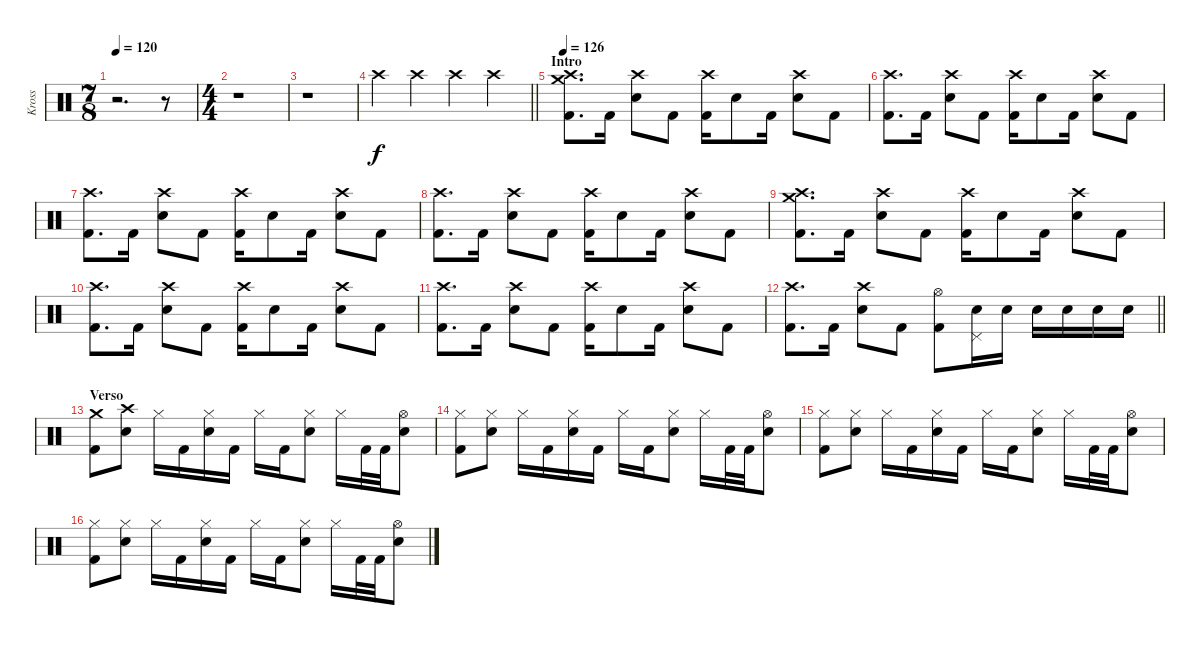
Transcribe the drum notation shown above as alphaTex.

\track ("Kross" "Kross") {instrument percussion}
\staff {score}
\articulation defaults
\ts (7 8)
\tempo 120
\clef neutral
\ks c
r.2{d dy f} r.8 |
\ts (4 4)
r.1 |
r.1 |
\barLineRight lightlight "Crash high (hit)".4 "Crash high (hit)".4 "Crash high (hit)".4 "Crash high (hit)".4
|
\section ("" "Intro")
\tempo 126
("Crash high (hit)" "Crash medium (hit)" "Kick (hit) 2").8{d} "Kick (hit) 2".16 ("Crash high (hit)" "Electric Snare (hit)").8 "Kick (hit) 2".8 ("Crash high (hit)" "Kick (hit) 2").16 "Electric Snare (hit)".8 "Kick (hit) 2".16 ("Crash high (hit)" "Electric Snare (hit)").8 "Kick (hit) 2".8 |
("Crash high (hit)" "Kick (hit) 2").8{d} "Kick (hit) 2".16 ("Crash high (hit)" "Electric Snare (hit)").8 "Kick (hit) 2".8 ("Crash high (hit)" "Kick (hit) 2").16 "Electric Snare (hit)".8 "Kick (hit) 2".16 ("Crash high (hit)" "Electric Snare (hit)").8 "Kick (hit) 2".8 |
("Crash high (hit)" "Kick (hit) 2").8{d} "Kick (hit) 2".16 ("Crash high (hit)" "Electric Snare (hit)").8 "Kick (hit) 2".8 ("Crash high (hit)" "Kick (hit) 2").16 "Electric Snare (hit)".8 "Kick (hit) 2".16 ("Crash high (hit)" "Electric Snare (hit)").8 "Kick (hit) 2".8 |
("Crash high (hit)" "Kick (hit) 2").8{d} "Kick (hit) 2".16 ("Crash high (hit)" "Electric Snare (hit)").8 "Kick (hit) 2".8 ("Crash high (hit)" "Kick (hit) 2").16 "Electric Snare (hit)".8 "Kick (hit) 2".16 ("Crash high (hit)" "Electric Snare (hit)").8 "Kick (hit) 2".8 |
("Crash high (hit)" "Crash medium (hit)" "Kick (hit) 2").8{d} "Kick (hit) 2".16 ("Crash high (hit)" "Electric Snare (hit)").8 "Kick (hit) 2".8 ("Crash high (hit)" "Kick (hit) 2").16 "Electric Snare (hit)".8 "Kick (hit) 2".16 ("Crash high (hit)" "Electric Snare (hit)").8 "Kick (hit) 2".8 |
("Crash high (hit)" "Kick (hit) 2").8{d} "Kick (hit) 2".16 ("Crash high (hit)" "Electric Snare (hit)").8 "Kick (hit) 2".8 ("Crash high (hit)" "Kick (hit) 2").16 "Electric Snare (hit)".8 "Kick (hit) 2".16 ("Crash high (hit)" "Electric Snare (hit)").8 "Kick (hit) 2".8 |
("Crash high (hit)" "Kick (hit) 2").8{d} "Kick (hit) 2".16 ("Crash high (hit)" "Electric Snare (hit)").8 "Kick (hit) 2".8 ("Crash high (hit)" "Kick (hit) 2").16 "Electric Snare (hit)".8 "Kick (hit) 2".16 ("Crash high (hit)" "Electric Snare (hit)").8 "Kick (hit) 2".8 |
\barLineRight lightlight
("Crash high (hit)" "Kick (hit) 2").8{d} "Kick (hit) 2".16 ("Crash high (hit)" "Electric Snare (hit)").8 "Kick (hit) 2".8 ("Hi-Hat (open)" "Kick (hit) 2").8 ("Pedal Hi-Hat (hit)" "Electric Snare (hit)").16 "Electric Snare (hit)".16 "Electric Snare (hit)".16 "Electric Snare (hit)".16 "Electric Snare (hit)".16 "Electric Snare (hit)".16 |
\section ("" "Verso")
("Crash medium (hit)" "Kick (hit) 2").8 ("Crash high (hit)" "Electric Snare (hit)").8 "Hi-Hat (closed)".16 "Kick (hit) 2".16 ("Hi-Hat (closed)" "Electric Snare (hit)").16 "Kick (hit) 2".16 "Hi-Hat (closed)".16 "Kick (hit) 2".16 ("Hi-Hat (closed)" "Electric Snare (hit)").8 "Hi-Hat (closed)".16 "Kick (hit) 2".32 "Kick (hit) 2".32 ("Hi-Hat (open)" "Electric Snare (hit)").8 |
("Hi-Hat (closed)" "Kick (hit) 2").8 ("Hi-Hat (closed)" "Electric Snare (hit)").8 "Hi-Hat (closed)".16 "Kick (hit) 2".16 ("Hi-Hat (closed)" "Electric Snare (hit)").16 "Kick (hit) 2".16 "Hi-Hat (closed)".16 "Kick (hit) 2".16 ("Hi-Hat (closed)" "Electric Snare (hit)").8 "Hi-Hat (closed)".16 "Kick (hit) 2".32 "Kick (hit) 2".32 ("Hi-Hat (open)" "Electric Snare (hit)").8 |
("Hi-Hat (closed)" "Kick (hit) 2").8 ("Hi-Hat (closed)" "Electric Snare (hit)").8 "Hi-Hat (closed)".16 "Kick (hit) 2".16 ("Hi-Hat (closed)" "Electric Snare (hit)").16 "Kick (hit) 2".16 "Hi-Hat (closed)".16 "Kick (hit) 2".16 ("Hi-Hat (closed)" "Electric Snare (hit)").8 "Hi-Hat (closed)".16 "Kick (hit) 2".32 "Kick (hit) 2".32 ("Hi-Hat (open)" "Electric Snare (hit)").8 |
("Hi-Hat (closed)" "Kick (hit) 2").8 ("Hi-Hat (closed)" "Electric Snare (hit)").8 "Hi-Hat (closed)".16 "Kick (hit) 2".16 ("Hi-Hat (closed)" "Electric Snare (hit)").16 "Kick (hit) 2".16 "Hi-Hat (closed)".16 "Kick (hit) 2".16 ("Hi-Hat (closed)" "Electric Snare (hit)").8 "Hi-Hat (closed)".16 "Kick (hit) 2".32 "Kick (hit) 2".32 ("Hi-Hat (open)" "Electric Snare (hit)").8
